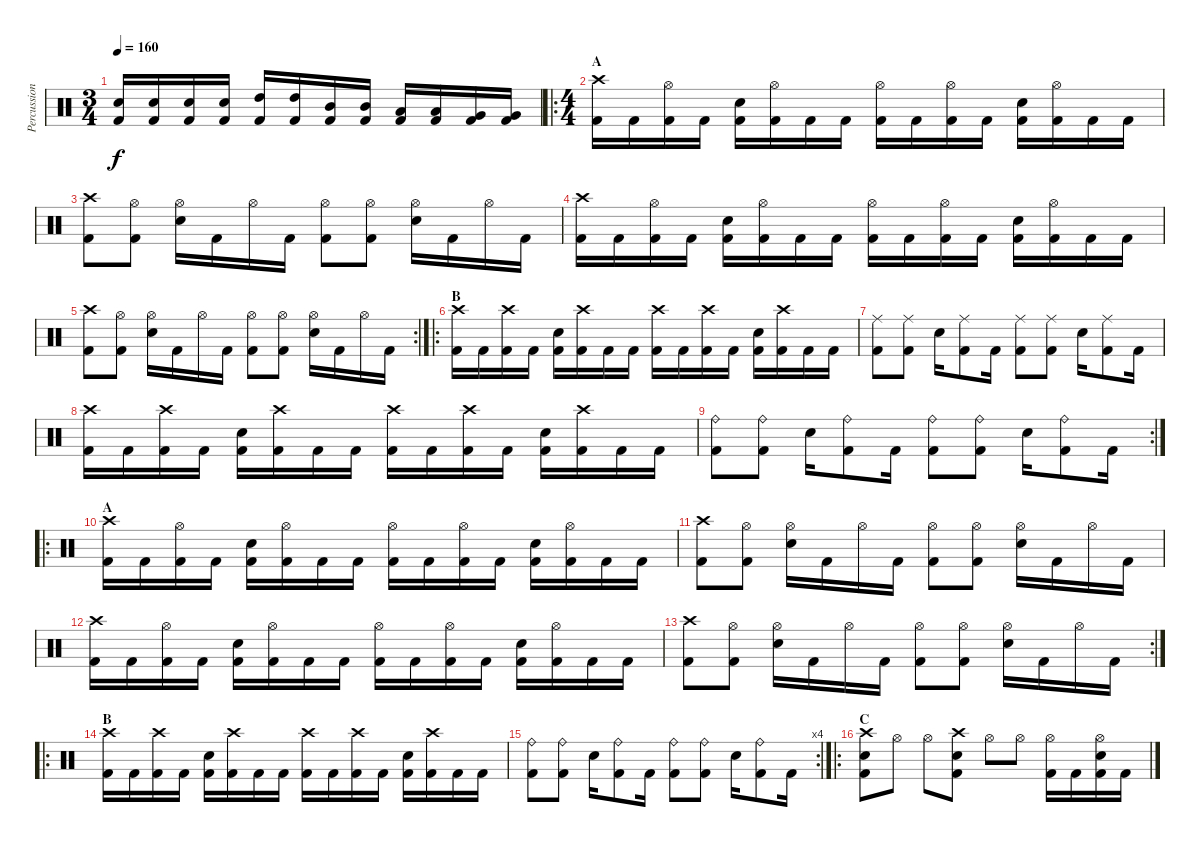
\track ("Percussions" "Percussion") {instrument percussion}
\staff {score}
\articulation defaults
\ts (3 4)
\tempo 160
\clef neutral
\ks c
("Electric Snare (hit)" "Kick (hit) 2").16{dy f} ("Electric Snare (hit)" "Kick (hit) 2").16 ("Electric Snare (hit)" "Kick (hit) 2").16 ("Electric Snare (hit)" "Kick (hit) 2").16 ("High Tom (hit)" "Kick (hit) 2").16 ("High Tom (hit)" "Kick (hit) 2").16 ("Mid Tom (hit)" "Kick (hit) 2").16 ("Mid Tom (hit)" "Kick (hit) 2").16 ("Low Tom (hit)" "Kick (hit) 2").16 ("Low Tom (hit)" "Kick (hit) 2").16 ("Very Low Tom (hit)" "Kick (hit) 2").16 ("Very Low Tom (hit)" "Kick (hit) 2").16 |
\ro
\ts (4 4)
\section ("" "A")
("Crash high (hit)" "Kick (hit) 2").16 "Kick (hit) 2".16 ("Hi-Hat (open)" "Kick (hit) 2").16 "Kick (hit) 2".16 ("Electric Snare (hit)" "Kick (hit) 2").16 ("Hi-Hat (open)" "Kick (hit) 2").16 "Kick (hit) 2".16 "Kick (hit) 2".16 ("Hi-Hat (open)" "Kick (hit) 2").16 "Kick (hit) 2".16 ("Hi-Hat (open)" "Kick (hit) 2").16 "Kick (hit) 2".16 ("Electric Snare (hit)" "Kick (hit) 2").16 ("Hi-Hat (open)" "Kick (hit) 2").16 "Kick (hit) 2".16 "Kick (hit) 2".16 |
("Crash high (hit)" "Kick (hit) 2").8 ("Hi-Hat (open)" "Kick (hit) 2").8 ("Hi-Hat (open)" "Electric Snare (hit)").16 "Kick (hit) 2".16 "Hi-Hat (open)".16 "Kick (hit) 2".16 ("Hi-Hat (open)" "Kick (hit) 2").8 ("Hi-Hat (open)" "Kick (hit) 2").8 ("Hi-Hat (open)" "Electric Snare (hit)").16 "Kick (hit) 2".16 "Hi-Hat (open)".16 "Kick (hit) 2".16 |
("Crash high (hit)" "Kick (hit) 2").16 "Kick (hit) 2".16 ("Hi-Hat (open)" "Kick (hit) 2").16 "Kick (hit) 2".16 ("Electric Snare (hit)" "Kick (hit) 2").16 ("Hi-Hat (open)" "Kick (hit) 2").16 "Kick (hit) 2".16 "Kick (hit) 2".16 ("Hi-Hat (open)" "Kick (hit) 2").16 "Kick (hit) 2".16 ("Hi-Hat (open)" "Kick (hit) 2").16 "Kick (hit) 2".16 ("Electric Snare (hit)" "Kick (hit) 2").16 ("Hi-Hat (open)" "Kick (hit) 2").16 "Kick (hit) 2".16 "Kick (hit) 2".16 |
\rc 2
("Crash high (hit)" "Kick (hit) 2").8 ("Hi-Hat (open)" "Kick (hit) 2").8 ("Hi-Hat (open)" "Electric Snare (hit)").16 "Kick (hit) 2".16 "Hi-Hat (open)".16 "Kick (hit) 2".16 ("Hi-Hat (open)" "Kick (hit) 2").8 ("Hi-Hat (open)" "Kick (hit) 2").8 ("Hi-Hat (open)" "Electric Snare (hit)").16 "Kick (hit) 2".16 "Hi-Hat (open)".16 "Kick (hit) 2".16 |
\ro
\section ("" "B")
("Crash high (hit)" "Kick (hit) 2").16 "Kick (hit) 2".16 ("Crash high (hit)" "Kick (hit) 2").16 "Kick (hit) 2".16 ("Electric Snare (hit)" "Kick (hit) 2").16 ("Crash high (hit)" "Kick (hit) 2").16 "Kick (hit) 2".16 "Kick (hit) 2".16 ("Crash high (hit)" "Kick (hit) 2").16 "Kick (hit) 2".16 ("Crash high (hit)" "Kick (hit) 2").16 "Kick (hit) 2".16 ("Electric Snare (hit)" "Kick (hit) 2").16 ("Crash high (hit)" "Kick (hit) 2").16 "Kick (hit) 2".16 "Kick (hit) 2".16 |
("Ride (middle)" "Kick (hit) 2").8 ("Ride (middle)" "Kick (hit) 2").8 "Electric Snare (hit)".16 ("Ride (middle)" "Kick (hit) 2").8 "Kick (hit) 2".16 ("Ride (middle)" "Kick (hit) 2").8 ("Ride (middle)" "Kick (hit) 2").8 "Electric Snare (hit)".16 ("Ride (middle)" "Kick (hit) 2").8 "Kick (hit) 2".16 |
("Crash high (hit)" "Kick (hit) 2").16 "Kick (hit) 2".16 ("Crash high (hit)" "Kick (hit) 2").16 "Kick (hit) 2".16 ("Electric Snare (hit)" "Kick (hit) 2").16 ("Crash high (hit)" "Kick (hit) 2").16 "Kick (hit) 2".16 "Kick (hit) 2".16 ("Crash high (hit)" "Kick (hit) 2").16 "Kick (hit) 2".16 ("Crash high (hit)" "Kick (hit) 2").16 "Kick (hit) 2".16 ("Electric Snare (hit)" "Kick (hit) 2").16 ("Crash high (hit)" "Kick (hit) 2").16 "Kick (hit) 2".16 "Kick (hit) 2".16 |
\rc 2
("Ride (bell)" "Kick (hit) 2").8 ("Ride (bell)" "Kick (hit) 2").8 "Electric Snare (hit)".16 ("Ride (bell)" "Kick (hit) 2").8 "Kick (hit) 2".16 ("Ride (bell)" "Kick (hit) 2").8 ("Ride (bell)" "Kick (hit) 2").8 "Electric Snare (hit)".16 ("Ride (bell)" "Kick (hit) 2").8 "Kick (hit) 2".16 |
\ro
\section ("" "A")
("Crash high (hit)" "Kick (hit) 2").16 "Kick (hit) 2".16 ("Hi-Hat (open)" "Kick (hit) 2").16 "Kick (hit) 2".16 ("Electric Snare (hit)" "Kick (hit) 2").16 ("Hi-Hat (open)" "Kick (hit) 2").16 "Kick (hit) 2".16 "Kick (hit) 2".16 ("Hi-Hat (open)" "Kick (hit) 2").16 "Kick (hit) 2".16 ("Hi-Hat (open)" "Kick (hit) 2").16 "Kick (hit) 2".16 ("Electric Snare (hit)" "Kick (hit) 2").16 ("Hi-Hat (open)" "Kick (hit) 2").16 "Kick (hit) 2".16 "Kick (hit) 2".16 |
("Crash high (hit)" "Kick (hit) 2").8 ("Hi-Hat (open)" "Kick (hit) 2").8 ("Hi-Hat (open)" "Electric Snare (hit)").16 "Kick (hit) 2".16 "Hi-Hat (open)".16 "Kick (hit) 2".16 ("Hi-Hat (open)" "Kick (hit) 2").8 ("Hi-Hat (open)" "Kick (hit) 2").8 ("Hi-Hat (open)" "Electric Snare (hit)").16 "Kick (hit) 2".16 "Hi-Hat (open)".16 "Kick (hit) 2".16 |
("Crash high (hit)" "Kick (hit) 2").16 "Kick (hit) 2".16 ("Hi-Hat (open)" "Kick (hit) 2").16 "Kick (hit) 2".16 ("Electric Snare (hit)" "Kick (hit) 2").16 ("Hi-Hat (open)" "Kick (hit) 2").16 "Kick (hit) 2".16 "Kick (hit) 2".16 ("Hi-Hat (open)" "Kick (hit) 2").16 "Kick (hit) 2".16 ("Hi-Hat (open)" "Kick (hit) 2").16 "Kick (hit) 2".16 ("Electric Snare (hit)" "Kick (hit) 2").16 ("Hi-Hat (open)" "Kick (hit) 2").16 "Kick (hit) 2".16 "Kick (hit) 2".16 |
\rc 2
("Crash high (hit)" "Kick (hit) 2").8 ("Hi-Hat (open)" "Kick (hit) 2").8 ("Hi-Hat (open)" "Electric Snare (hit)").16 "Kick (hit) 2".16 "Hi-Hat (open)".16 "Kick (hit) 2".16 ("Hi-Hat (open)" "Kick (hit) 2").8 ("Hi-Hat (open)" "Kick (hit) 2").8 ("Hi-Hat (open)" "Electric Snare (hit)").16 "Kick (hit) 2".16 "Hi-Hat (open)".16 "Kick (hit) 2".16 |
\ro
\section ("" "B")
("Crash high (hit)" "Kick (hit) 2").16 "Kick (hit) 2".16 ("Crash high (hit)" "Kick (hit) 2").16 "Kick (hit) 2".16 ("Electric Snare (hit)" "Kick (hit) 2").16 ("Crash high (hit)" "Kick (hit) 2").16 "Kick (hit) 2".16 "Kick (hit) 2".16 ("Crash high (hit)" "Kick (hit) 2").16 "Kick (hit) 2".16 ("Crash high (hit)" "Kick (hit) 2").16 "Kick (hit) 2".16 ("Electric Snare (hit)" "Kick (hit) 2").16 ("Crash high (hit)" "Kick (hit) 2").16 "Kick (hit) 2".16 "Kick (hit) 2".16 |
\rc 4
("Ride (bell)" "Kick (hit) 2").8 ("Ride (bell)" "Kick (hit) 2").8 "Electric Snare (hit)".16 ("Ride (bell)" "Kick (hit) 2").8 "Kick (hit) 2".16 ("Ride (bell)" "Kick (hit) 2").8 ("Ride (bell)" "Kick (hit) 2").8 "Electric Snare (hit)".16 ("Ride (bell)" "Kick (hit) 2").8 "Kick (hit) 2".16 |
\ro
\section ("" "C")
("Crash high (hit)" "Electric Snare (hit)" "Kick (hit) 2").8 "Hi-Hat (open)".8 "Hi-Hat (open)".8 ("Crash high (hit)" "Electric Snare (hit)" "Kick (hit) 2").8 "Hi-Hat (open)".8 "Hi-Hat (open)".8 ("Hi-Hat (open)" "Kick (hit) 2").16 "Kick (hit) 2".16 ("Hi-Hat (open)" "Electric Snare (hit)" "Kick (hit) 2").16 "Kick (hit) 2".16
